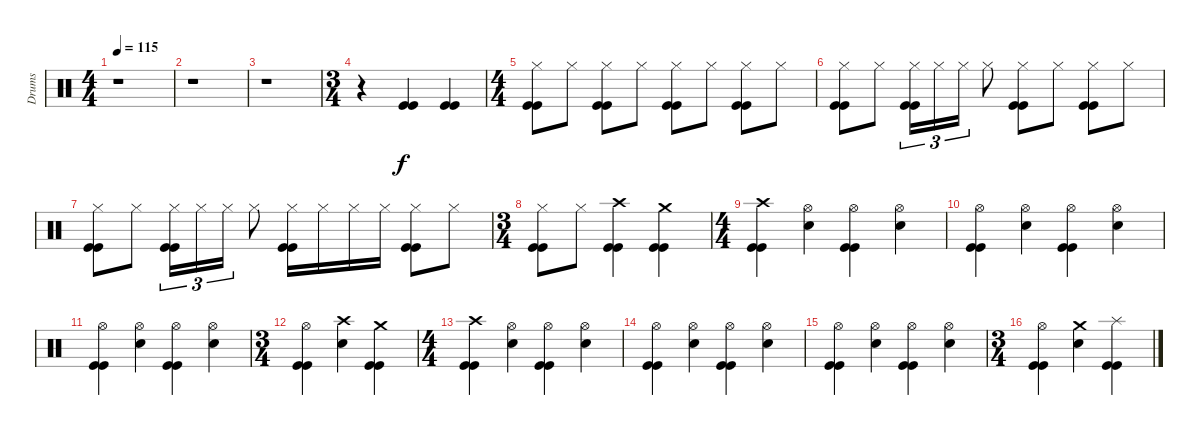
\track ("Drums" "Drums") {instrument percussion}
\staff {score}
\articulation defaults
\ts (4 4)
\tempo 115
\tempo 140
\tempo 115
\clef neutral
\ks c
r.1{dy f} |
r.1 |
r.1 |
\ts (3 4)
r.4 ("Kick (hit)" "Kick (hit)").4 ("Kick (hit)" "Kick (hit)").4 |
\ts (4 4)
("Kick (hit)" "Kick (hit)" "Hi-Hat (closed)").8 "Hi-Hat (closed)".8 ("Kick (hit)" "Kick (hit)" "Hi-Hat (closed)").8 "Hi-Hat (closed)".8 ("Kick (hit)" "Kick (hit)" "Hi-Hat (closed)").8 "Hi-Hat (closed)".8 ("Kick (hit)" "Kick (hit)" "Hi-Hat (closed)").8 "Hi-Hat (closed)".8 |
("Kick (hit)" "Kick (hit)" "Hi-Hat (closed)").8 "Hi-Hat (closed)".8 ("Kick (hit)" "Kick (hit)" "Hi-Hat (closed)").16{tu (3 2)} "Hi-Hat (closed)".16{tu (3 2)} "Hi-Hat (closed)".16{tu (3 2)} "Hi-Hat (closed)".8 ("Kick (hit)" "Kick (hit)" "Hi-Hat (closed)").8 "Hi-Hat (closed)".8 ("Kick (hit)" "Kick (hit)" "Hi-Hat (closed)").8 "Hi-Hat (closed)".8 |
("Kick (hit)" "Kick (hit)" "Hi-Hat (closed)").8 "Hi-Hat (closed)".8 ("Kick (hit)" "Kick (hit)" "Hi-Hat (closed)").16{tu (3 2)} "Hi-Hat (closed)".16{tu (3 2)} "Hi-Hat (closed)".16{tu (3 2)} "Hi-Hat (closed)".8 ("Kick (hit)" "Kick (hit)" "Hi-Hat (closed)").16 "Hi-Hat (closed)".16 "Hi-Hat (closed)".16 "Hi-Hat (closed)".16 ("Kick (hit)" "Kick (hit)" "Hi-Hat (closed)").8 "Hi-Hat (closed)".8 |
\ts (3 4)
("Kick (hit)" "Kick (hit)" "Hi-Hat (closed)").8 "Hi-Hat (closed)".8 ("Kick (hit)" "Kick (hit)" "Crash high (hit)").4 ("Kick (hit)" "Kick (hit)" "Crash medium (hit)").4 |
\ts (4 4)
("Kick (hit)" "Kick (hit)" "Crash high (hit)").4 ("Snare (hit) 2" "Hi-Hat (open)").4 ("Kick (hit)" "Kick (hit)" "Hi-Hat (open)").4 ("Snare (hit) 2" "Hi-Hat (open)").4 |
("Kick (hit)" "Kick (hit)" "Hi-Hat (open)").4 ("Snare (hit) 2" "Hi-Hat (open)").4 ("Kick (hit)" "Kick (hit)" "Hi-Hat (open)").4 ("Snare (hit) 2" "Hi-Hat (open)").4 |
("Kick (hit)" "Kick (hit)" "Hi-Hat (open)").4 ("Snare (hit) 2" "Hi-Hat (open)").4 ("Kick (hit)" "Kick (hit)" "Hi-Hat (open)").4 ("Snare (hit) 2" "Hi-Hat (open)").4 |
\ts (3 4)
("Kick (hit)" "Kick (hit)" "Hi-Hat (open)").4 ("Snare (hit) 2" "Crash high (hit)").4 ("Kick (hit)" "Kick (hit)" "Crash medium (hit)").4 |
\ts (4 4)
("Kick (hit)" "Kick (hit)" "Crash high (hit)").4 ("Snare (hit) 2" "Hi-Hat (open)").4 ("Kick (hit)" "Kick (hit)" "Hi-Hat (open)").4 ("Snare (hit) 2" "Hi-Hat (open)").4 |
("Kick (hit)" "Kick (hit)" "Hi-Hat (open)").4 ("Snare (hit) 2" "Hi-Hat (open)").4 ("Kick (hit)" "Kick (hit)" "Hi-Hat (open)").4 ("Snare (hit) 2" "Hi-Hat (open)").4 |
("Kick (hit)" "Kick (hit)" "Hi-Hat (open)").4 ("Snare (hit) 2" "Hi-Hat (open)").4 ("Kick (hit)" "Kick (hit)" "Hi-Hat (open)").4 ("Snare (hit) 2" "Hi-Hat (open)").4 |
\ts (3 4)
("Kick (hit)" "Kick (hit)" "Hi-Hat (open)").4 ("Snare (hit) 2" "Crash medium (hit)").4 ("Kick (hit)" "Kick (hit)" "Splash (hit)").4
